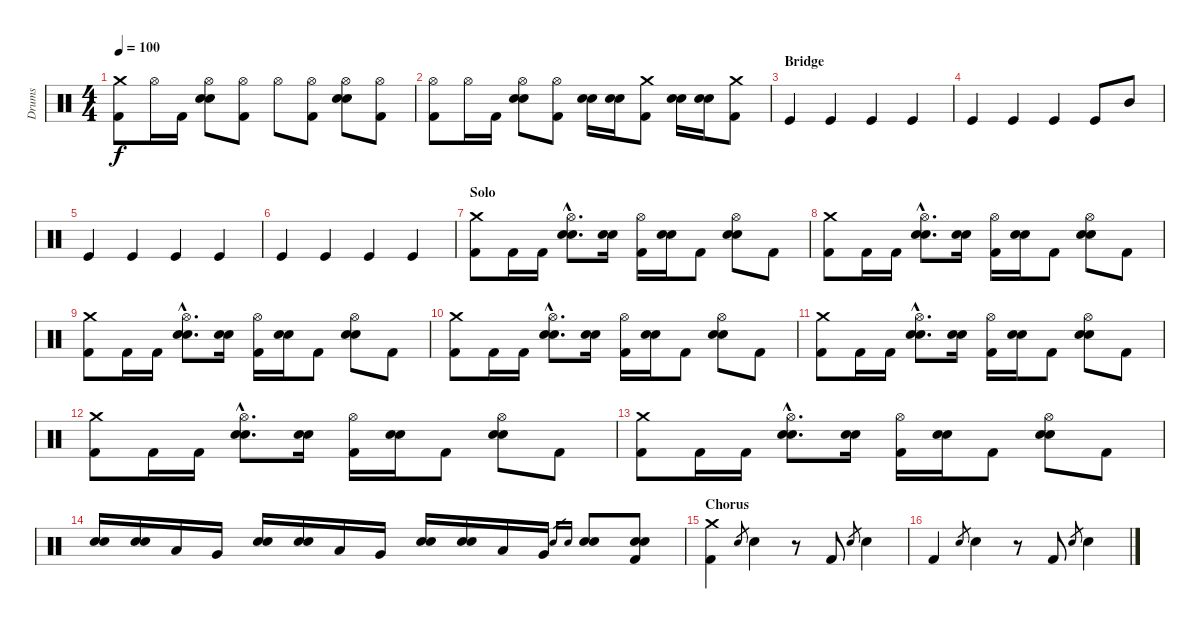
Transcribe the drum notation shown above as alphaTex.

\track ("Drums" "Drums") {instrument percussion}
\staff {score}
\articulation defaults
\ts (4 4)
\tempo 100
\clef neutral
\ks c
("Crash medium (hit)" "Kick (hit) 2").8{dy f} "Hi-Hat (open)".16 "Kick (hit) 2".16 ("Hi-Hat (open)" "Electric Snare (hit)" "Snare (hit) 2").8 ("Hi-Hat (open)" "Kick (hit) 2").8 "Hi-Hat (open)".8 ("Hi-Hat (open)" "Kick (hit) 2").8 ("Hi-Hat (open)" "Electric Snare (hit)" "Snare (hit) 2").8 ("Hi-Hat (open)" "Kick (hit) 2").8 |
("Hi-Hat (open)" "Kick (hit) 2").8 "Hi-Hat (open)".16 "Kick (hit) 2".16 ("Hi-Hat (open)" "Electric Snare (hit)" "Snare (hit) 2").8 ("Hi-Hat (open)" "Kick (hit) 2").8 ("Electric Snare (hit)" "Snare (hit) 2").16 ("Electric Snare (hit)" "Snare (hit) 2").16 ("Crash medium (hit)" "Kick (hit) 2").8 ("Electric Snare (hit)" "Snare (hit) 2").16 ("Electric Snare (hit)" "Snare (hit) 2").16 ("Crash medium (hit)" "Kick (hit) 2").8 |
\section ("" "Bridge")
"Kick (hit)".4 "Kick (hit)".4 "Kick (hit)".4 "Kick (hit)".4 |
"Kick (hit)".4 "Kick (hit)".4 "Kick (hit)".4 "Kick (hit)".8 "Mid Tom (hit)".8 |
"Kick (hit)".4 "Kick (hit)".4 "Kick (hit)".4 "Kick (hit)".4 |
"Kick (hit)".4 "Kick (hit)".4 "Kick (hit)".4 "Kick (hit)".4 |
\section ("" "Solo")
("Crash medium (hit)" "Kick (hit) 2").8 "Kick (hit) 2".16 "Kick (hit) 2".16 ("Hi-Hat (open)"{hac} "Electric Snare (hit)"{hac} "Snare (hit) 2"{hac}).8{d} ("Electric Snare (hit)" "Snare (hit) 2").16 ("Hi-Hat (open)" "Kick (hit) 2").16 ("Electric Snare (hit)" "Snare (hit) 2").16 "Kick (hit) 2".8 ("Hi-Hat (open)" "Electric Snare (hit)" "Snare (hit) 2").8 "Kick (hit) 2".8 |
("Crash medium (hit)" "Kick (hit) 2").8 "Kick (hit) 2".16 "Kick (hit) 2".16 ("Hi-Hat (open)"{hac} "Electric Snare (hit)"{hac} "Snare (hit) 2"{hac}).8{d} ("Electric Snare (hit)" "Snare (hit) 2").16 ("Hi-Hat (open)" "Kick (hit) 2").16 ("Electric Snare (hit)" "Snare (hit) 2").16 "Kick (hit) 2".8 ("Hi-Hat (open)" "Electric Snare (hit)" "Snare (hit) 2").8 "Kick (hit) 2".8 |
("Crash medium (hit)" "Kick (hit) 2").8 "Kick (hit) 2".16 "Kick (hit) 2".16 ("Hi-Hat (open)"{hac} "Electric Snare (hit)"{hac} "Snare (hit) 2"{hac}).8{d} ("Electric Snare (hit)" "Snare (hit) 2").16 ("Hi-Hat (open)" "Kick (hit) 2").16 ("Electric Snare (hit)" "Snare (hit) 2").16 "Kick (hit) 2".8 ("Hi-Hat (open)" "Electric Snare (hit)" "Snare (hit) 2").8 "Kick (hit) 2".8 |
("Crash medium (hit)" "Kick (hit) 2").8 "Kick (hit) 2".16 "Kick (hit) 2".16 ("Hi-Hat (open)"{hac} "Electric Snare (hit)"{hac} "Snare (hit) 2"{hac}).8{d} ("Electric Snare (hit)" "Snare (hit) 2").16 ("Hi-Hat (open)" "Kick (hit) 2").16 ("Electric Snare (hit)" "Snare (hit) 2").16 "Kick (hit) 2".8 ("Hi-Hat (open)" "Electric Snare (hit)" "Snare (hit) 2").8 "Kick (hit) 2".8 |
("Crash medium (hit)" "Kick (hit) 2").8 "Kick (hit) 2".16 "Kick (hit) 2".16 ("Hi-Hat (open)"{hac} "Electric Snare (hit)"{hac} "Snare (hit) 2"{hac}).8{d} ("Electric Snare (hit)" "Snare (hit) 2").16 ("Hi-Hat (open)" "Kick (hit) 2").16 ("Electric Snare (hit)" "Snare (hit) 2").16 "Kick (hit) 2".8 ("Hi-Hat (open)" "Electric Snare (hit)" "Snare (hit) 2").8 "Kick (hit) 2".8 |
("Crash medium (hit)" "Kick (hit) 2").8 "Kick (hit) 2".16 "Kick (hit) 2".16 ("Hi-Hat (open)"{hac} "Electric Snare (hit)"{hac} "Snare (hit) 2"{hac}).8{d} ("Electric Snare (hit)" "Snare (hit) 2").16 ("Hi-Hat (open)" "Kick (hit) 2").16 ("Electric Snare (hit)" "Snare (hit) 2").16 "Kick (hit) 2".8 ("Hi-Hat (open)" "Electric Snare (hit)" "Snare (hit) 2").8 "Kick (hit) 2".8 |
("Crash medium (hit)" "Kick (hit) 2").8 "Kick (hit) 2".16 "Kick (hit) 2".16 ("Hi-Hat (open)"{hac} "Electric Snare (hit)"{hac} "Snare (hit) 2"{hac}).8{d} ("Electric Snare (hit)" "Snare (hit) 2").16 ("Hi-Hat (open)" "Kick (hit) 2").16 ("Electric Snare (hit)" "Snare (hit) 2").16 "Kick (hit) 2".8 ("Hi-Hat (open)" "Electric Snare (hit)" "Snare (hit) 2").8 "Kick (hit) 2".8 |
("Electric Snare (hit)" "Snare (hit) 2").16 ("Electric Snare (hit)" "Snare (hit) 2").16 "Low Tom (hit)".16 "Very Low Tom (hit)".16 ("Electric Snare (hit)" "Snare (hit) 2").16 ("Electric Snare (hit)" "Snare (hit) 2").16 "Low Tom (hit)".16 "Very Low Tom (hit)".16 ("Electric Snare (hit)" "Snare (hit) 2").16 ("Electric Snare (hit)" "Snare (hit) 2").16 "Low Tom (hit)".16 "Very Low Tom (hit)".16 "Electric Snare (hit)".16{gr} "Snare (hit) 2".16{gr} ("Electric Snare (hit)" "Snare (hit) 2").8 ("Electric Snare (hit)" "Snare (hit) 2" "Kick (hit) 2").8 |
\section ("" "Chorus")
("Crash medium (hit)" "Kick (hit) 2").4 "Electric Snare (hit)".8{gr} "Electric Snare (hit)".4 r.8 "Kick (hit) 2".8 "Electric Snare (hit)".8{gr} "Electric Snare (hit)".4 |
"Kick (hit) 2".4 "Electric Snare (hit)".8{gr} "Electric Snare (hit)".4 r.8 "Kick (hit) 2".8 "Electric Snare (hit)".8{gr} "Electric Snare (hit)".4
